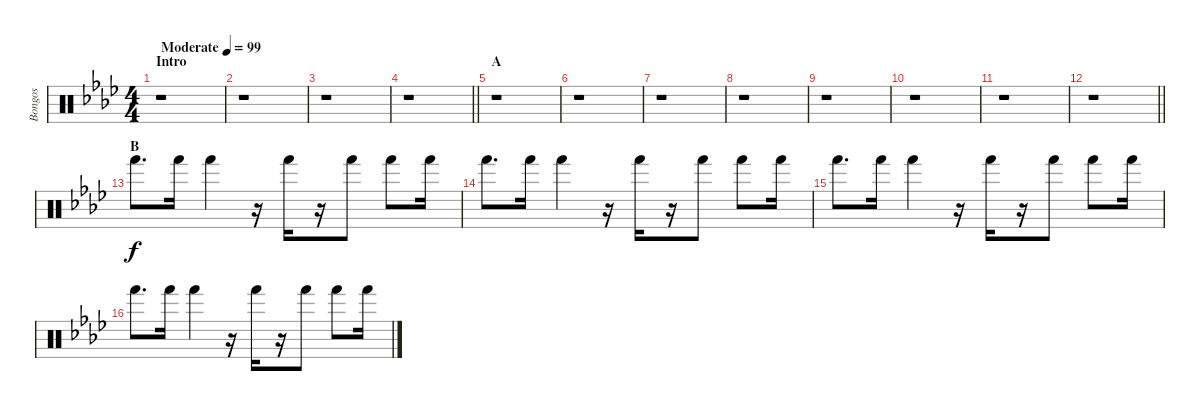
\track ("Bongos" "Bongos") {instrument percussion}
\staff {score}
\articulation defaults
\ts (4 4)
\section ("" "Intro")
\tempo (99 "Moderate")
\clef neutral
\ks ab
r.1{dy f} |
r.1 |
r.1 |
\barLineRight lightlight
r.1 |
\section ("" "A")
r.1 |
r.1 |
r.1 |
r.1 |
r.1 |
r.1 |
r.1 |
\barLineRight lightlight
r.1 |
\section ("" "B")
"Hand (hit)".8{d} "Hand (hit)".16 "Hand (hit)".4 r.16 "Hand (hit)".16 r.16 "Hand (hit)".8 "Hand (hit)".8 "Hand (hit)".16 |
"Hand (hit)".8{d} "Hand (hit)".16 "Hand (hit)".4 r.16 "Hand (hit)".16 r.16 "Hand (hit)".8 "Hand (hit)".8 "Hand (hit)".16 |
"Hand (hit)".8{d} "Hand (hit)".16 "Hand (hit)".4 r.16 "Hand (hit)".16 r.16 "Hand (hit)".8 "Hand (hit)".8 "Hand (hit)".16 |
"Hand (hit)".8{d} "Hand (hit)".16 "Hand (hit)".4 r.16 "Hand (hit)".16 r.16 "Hand (hit)".8 "Hand (hit)".8 "Hand (hit)".16
